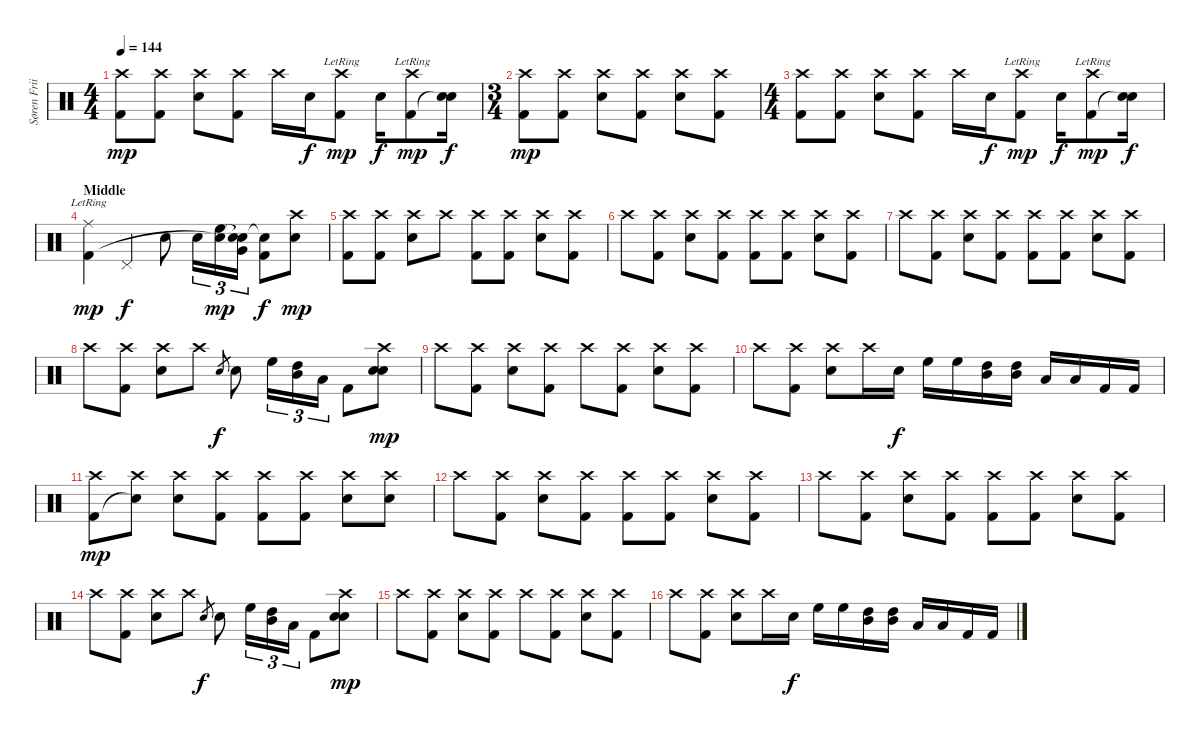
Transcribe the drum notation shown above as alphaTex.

\track ("Søren Friis" "Søren Frii") {instrument percussion}
\staff {score}
\articulation defaults
\ts (4 4)
\tempo 144
\clef neutral
\ks c
("Crash high (hit)" "Kick (hit) 2").8{dy mp} ("Crash high (hit)" "Kick (hit) 2").8 ("Crash high (hit)" "Snare (hit) 2").8 ("Crash high (hit)" "Kick (hit) 2").8 "Crash high (hit)".16 "Snare (hit) 2".16{dy f} ("Crash high (hit)"{lr} "Kick (hit) 2").8{dy mp} "Snare (hit) 2".16{dy f} ("Crash high (hit)"{lr} "Kick (hit) 2").8{dy mp} ("Snare (hit) 2" "Snare (hit)"{t}).16{dy f} |
\ts (3 4)
("Crash high (hit)" "Kick (hit) 2").8{dy mp} ("Crash high (hit)" "Kick (hit) 2").8 ("Crash high (hit)" "Snare (hit) 2").8 ("Crash high (hit)" "Kick (hit) 2").8 ("Crash high (hit)" "Snare (hit) 2").8 ("Crash high (hit)" "Kick (hit) 2").8 |
\ts (4 4)
("Crash high (hit)" "Kick (hit) 2").8 ("Crash high (hit)" "Kick (hit) 2").8 ("Crash high (hit)" "Snare (hit) 2").8 ("Crash high (hit)" "Kick (hit) 2").8 "Crash high (hit)".16 "Snare (hit) 2".16{dy f} ("Crash high (hit)"{lr} "Kick (hit) 2").8{dy mp} "Snare (hit) 2".16{dy f} ("Crash high (hit)"{lr} "Kick (hit) 2").8{dy mp} ("Snare (hit) 2" "Snare (hit)"{t}).16{dy f} |
\section ("" "Middle")
("Ride (middle)"{lr} "Kick (hit) 2").4{dy mp} "Pedal Hi-Hat (hit)".4{dy f} "Snare (hit) 2".8 "Snare (hit) 2".16{tu (3 2)} ("High Floor Tom (hit)" "Snare (hit)"{t}).16{tu (3 2) dy mp} ("Snare (hit)"{t} "Snare (hit) 2"{t} "Very Low Tom (hit)").16{tu (3 2)} ("Snare (hit)"{t} "Kick (hit) 2").8{dy f} ("Crash high (hit)" "Snare (hit) 2").8{dy mp} |
("Crash high (hit)" "Kick (hit) 2").8 ("Crash high (hit)" "Kick (hit) 2").8 ("Crash high (hit)" "Snare (hit) 2").8 "Crash high (hit)".8 ("Crash high (hit)" "Kick (hit) 2").8 ("Crash high (hit)" "Kick (hit) 2").8 ("Crash high (hit)" "Snare (hit) 2").8 ("Crash high (hit)" "Kick (hit) 2").8 |
"Crash high (hit)".8 ("Crash high (hit)" "Kick (hit) 2").8 ("Crash high (hit)" "Snare (hit) 2").8 ("Crash high (hit)" "Kick (hit) 2").8 ("Crash high (hit)" "Kick (hit) 2").8 ("Crash high (hit)" "Kick (hit) 2").8 ("Crash high (hit)" "Snare (hit) 2").8 ("Crash high (hit)" "Kick (hit) 2").8 |
"Crash high (hit)".8 ("Crash high (hit)" "Kick (hit) 2").8 ("Crash high (hit)" "Snare (hit) 2").8 ("Crash high (hit)" "Kick (hit) 2").8 ("Crash high (hit)" "Kick (hit) 2").8 ("Crash high (hit)" "Kick (hit) 2").8 ("Crash high (hit)" "Snare (hit) 2").8 ("Crash high (hit)" "Kick (hit) 2").8 |
"Crash high (hit)".8 ("Crash high (hit)" "Kick (hit) 2").8 ("Crash high (hit)" "Snare (hit) 2").8 "Crash high (hit)".8 "Snare (hit) 2".8{gr dy f} "Snare (hit) 2".8 "High Floor Tom (hit)".16{tu (3 2)} ("High Tom (hit)" "Mid Tom (hit)").16{tu (3 2)} "Low Tom (hit)".16{tu (3 2)} "Kick (hit) 2".8 ("Crash high (hit)" "Snare (hit) 2" "Snare (hit)").8{dy mp} |
"Crash high (hit)".8 ("Crash high (hit)" "Kick (hit) 2").8 ("Crash high (hit)" "Snare (hit) 2").8 ("Crash high (hit)" "Kick (hit) 2").8 "Crash high (hit)".8 ("Crash high (hit)" "Kick (hit) 2").8 ("Crash high (hit)" "Snare (hit) 2").8 ("Crash high (hit)" "Kick (hit) 2").8 |
"Crash high (hit)".8 ("Crash high (hit)" "Kick (hit) 2").8 ("Crash high (hit)" "Snare (hit) 2").8 "Crash high (hit)".16 "Snare (hit) 2".16{dy f} "High Floor Tom (hit)".16 "High Floor Tom (hit)".16 ("High Tom (hit)" "Mid Tom (hit)").16 ("High Tom (hit)" "Mid Tom (hit)").16 "Low Tom (hit)".16 "Low Tom (hit)".16 "Kick (hit) 2".16 "Kick (hit) 2".16 |
("Crash high (hit)" "Kick (hit) 2").8{dy mp} ("Crash high (hit)" "Snare (hit)"{t}).8 ("Crash high (hit)" "Snare (hit) 2").8 ("Crash high (hit)" "Kick (hit) 2").8 ("Crash high (hit)" "Kick (hit) 2").8 ("Crash high (hit)" "Kick (hit) 2").8 ("Crash high (hit)" "Snare (hit) 2").8 ("Crash high (hit)" "Snare (hit) 2").8 |
"Crash high (hit)".8 ("Crash high (hit)" "Kick (hit) 2").8 ("Crash high (hit)" "Snare (hit) 2").8 ("Crash high (hit)" "Kick (hit) 2").8 ("Crash high (hit)" "Kick (hit) 2").8 ("Crash high (hit)" "Kick (hit) 2").8 ("Crash high (hit)" "Snare (hit) 2").8 ("Crash high (hit)" "Kick (hit) 2").8 |
"Crash high (hit)".8 ("Crash high (hit)" "Kick (hit) 2").8 ("Crash high (hit)" "Snare (hit) 2").8 ("Crash high (hit)" "Kick (hit) 2").8 ("Crash high (hit)" "Kick (hit) 2").8 ("Crash high (hit)" "Kick (hit) 2").8 ("Crash high (hit)" "Snare (hit) 2").8 ("Crash high (hit)" "Kick (hit) 2").8 |
"Crash high (hit)".8 ("Crash high (hit)" "Kick (hit) 2").8 ("Crash high (hit)" "Snare (hit) 2").8 "Crash high (hit)".8 "Snare (hit) 2".8{gr dy f} "Snare (hit) 2".8 "High Floor Tom (hit)".16{tu (3 2)} ("High Tom (hit)" "Mid Tom (hit)").16{tu (3 2)} "Low Tom (hit)".16{tu (3 2)} "Kick (hit) 2".8 ("Crash high (hit)" "Snare (hit) 2" "Snare (hit)").8{dy mp} |
"Crash high (hit)".8 ("Crash high (hit)" "Kick (hit) 2").8 ("Crash high (hit)" "Snare (hit) 2").8 ("Crash high (hit)" "Kick (hit) 2").8 "Crash high (hit)".8 ("Crash high (hit)" "Kick (hit) 2").8 ("Crash high (hit)" "Snare (hit) 2").8 ("Crash high (hit)" "Kick (hit) 2").8 |
"Crash high (hit)".8 ("Crash high (hit)" "Kick (hit) 2").8 ("Crash high (hit)" "Snare (hit) 2").8 "Crash high (hit)".16 "Snare (hit) 2".16{dy f} "High Floor Tom (hit)".16 "High Floor Tom (hit)".16 ("High Tom (hit)" "Mid Tom (hit)").16 ("High Tom (hit)" "Mid Tom (hit)").16 "Low Tom (hit)".16 "Low Tom (hit)".16 "Kick (hit) 2".16 "Kick (hit) 2".16
